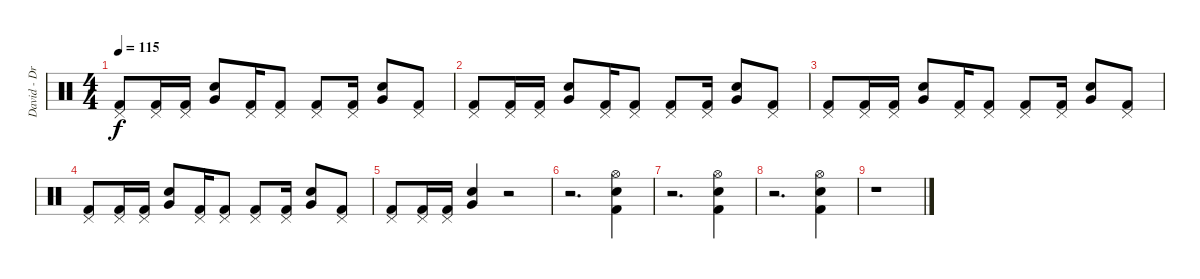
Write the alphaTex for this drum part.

\track ("David - Drums" "David - Dr") {instrument percussion}
\staff {score}
\articulation defaults
\ts (4 4)
\tempo 115
\clef neutral
\ks c
("Kick (hit) 2" "Pedal Hi-Hat (hit)").8{dy f} ("Kick (hit) 2" "Pedal Hi-Hat (hit)").16 ("Kick (hit) 2" "Pedal Hi-Hat (hit)").16 ("Snare (hit) 2" "Very Low Tom (hit)").8 ("Kick (hit) 2" "Pedal Hi-Hat (hit)").16 ("Kick (hit) 2" "Pedal Hi-Hat (hit)").8 ("Kick (hit) 2" "Pedal Hi-Hat (hit)").8 ("Kick (hit) 2" "Pedal Hi-Hat (hit)").16 ("Snare (hit) 2" "Very Low Tom (hit)").8 ("Kick (hit) 2" "Pedal Hi-Hat (hit)").8 |
("Kick (hit) 2" "Pedal Hi-Hat (hit)").8 ("Kick (hit) 2" "Pedal Hi-Hat (hit)").16 ("Kick (hit) 2" "Pedal Hi-Hat (hit)").16 ("Snare (hit) 2" "Very Low Tom (hit)").8 ("Kick (hit) 2" "Pedal Hi-Hat (hit)").16 ("Kick (hit) 2" "Pedal Hi-Hat (hit)").8 ("Kick (hit) 2" "Pedal Hi-Hat (hit)").8 ("Kick (hit) 2" "Pedal Hi-Hat (hit)").16 ("Snare (hit) 2" "Very Low Tom (hit)").8 ("Kick (hit) 2" "Pedal Hi-Hat (hit)").8 |
("Kick (hit) 2" "Pedal Hi-Hat (hit)").8 ("Kick (hit) 2" "Pedal Hi-Hat (hit)").16 ("Kick (hit) 2" "Pedal Hi-Hat (hit)").16 ("Snare (hit) 2" "Very Low Tom (hit)").8 ("Kick (hit) 2" "Pedal Hi-Hat (hit)").16 ("Kick (hit) 2" "Pedal Hi-Hat (hit)").8 ("Kick (hit) 2" "Pedal Hi-Hat (hit)").8 ("Kick (hit) 2" "Pedal Hi-Hat (hit)").16 ("Snare (hit) 2" "Very Low Tom (hit)").8 ("Kick (hit) 2" "Pedal Hi-Hat (hit)").8 |
("Kick (hit) 2" "Pedal Hi-Hat (hit)").8 ("Kick (hit) 2" "Pedal Hi-Hat (hit)").16 ("Kick (hit) 2" "Pedal Hi-Hat (hit)").16 ("Snare (hit) 2" "Very Low Tom (hit)").8 ("Kick (hit) 2" "Pedal Hi-Hat (hit)").16 ("Kick (hit) 2" "Pedal Hi-Hat (hit)").8 ("Kick (hit) 2" "Pedal Hi-Hat (hit)").8 ("Kick (hit) 2" "Pedal Hi-Hat (hit)").16 ("Snare (hit) 2" "Very Low Tom (hit)").8 ("Kick (hit) 2" "Pedal Hi-Hat (hit)").8 |
("Kick (hit) 2" "Pedal Hi-Hat (hit)").8 ("Kick (hit) 2" "Pedal Hi-Hat (hit)").16 ("Kick (hit) 2" "Pedal Hi-Hat (hit)").16 ("Snare (hit) 2" "Very Low Tom (hit)").4 r.2 |
r.2{d} ("Kick (hit) 2" "Electric Snare (hit)" "Hi-Hat (open)").4 |
r.2{d} ("Kick (hit) 2" "Electric Snare (hit)" "Hi-Hat (open)").4 |
r.2{d} ("Kick (hit) 2" "Electric Snare (hit)" "Hi-Hat (open)").4 |
r.1
